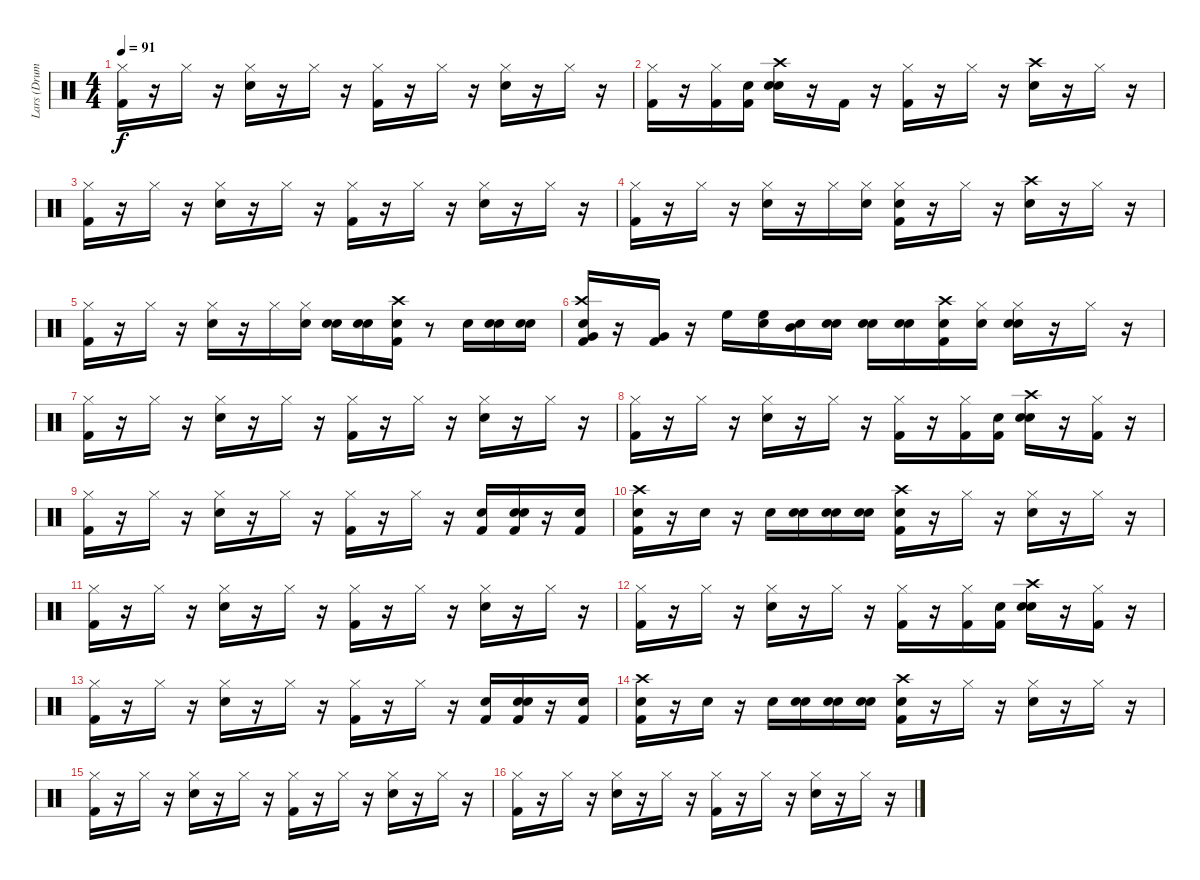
\track ("Lars (Drums)" "Lars (Drum") {instrument percussion}
\staff {score}
\articulation defaults
\ts (4 4)
\tempo 91
\clef neutral
\ks c
("Kick (hit) 2" "Hi-Hat (closed)").16{dy f} r.16 "Hi-Hat (closed)".16 r.16 ("Snare (hit) 2" "Hi-Hat (closed)").16 r.16 "Hi-Hat (closed)".16 r.16 ("Kick (hit) 2" "Hi-Hat (closed)").16 r.16 "Hi-Hat (closed)".16 r.16 ("Snare (hit) 2" "Hi-Hat (closed)").16 r.16 "Hi-Hat (closed)".16 r.16 |
("Kick (hit) 2" "Hi-Hat (closed)").16 r.16 ("Kick (hit) 2" "Hi-Hat (closed)").16 ("Snare (hit)" "Kick (hit) 2").16 ("Snare (hit)" "Snare (hit) 2" "Crash high (hit)").16 r.16 "Kick (hit) 2".16 r.16 ("Kick (hit) 2" "Hi-Hat (closed)").16 r.16 "Hi-Hat (closed)".16 r.16 ("Snare (hit) 2" "Crash high (hit)").16 r.16 "Hi-Hat (closed)".16 r.16 |
("Kick (hit) 2" "Hi-Hat (closed)").16 r.16 "Hi-Hat (closed)".16 r.16 ("Snare (hit) 2" "Hi-Hat (closed)").16 r.16 "Hi-Hat (closed)".16 r.16 ("Kick (hit) 2" "Hi-Hat (closed)").16 r.16 "Hi-Hat (closed)".16 r.16 ("Snare (hit) 2" "Hi-Hat (closed)").16 r.16 "Hi-Hat (closed)".16 r.16 |
("Kick (hit) 2" "Hi-Hat (closed)").16 r.16 "Hi-Hat (closed)".16 r.16 ("Snare (hit) 2" "Hi-Hat (closed)").16 r.16 "Hi-Hat (closed)".16 ("Snare (hit)" "Hi-Hat (closed)").16 ("Snare (hit)" "Kick (hit) 2" "Hi-Hat (closed)").16 r.16 "Hi-Hat (closed)".16 r.16 ("Snare (hit) 2" "Crash high (hit)").16 r.16 "Hi-Hat (closed)".16 r.16 |
("Kick (hit) 2" "Hi-Hat (closed)").16 r.16 "Hi-Hat (closed)".16 r.16 ("Snare (hit) 2" "Hi-Hat (closed)").16 r.16 "Hi-Hat (closed)".16 ("Snare (hit)" "Hi-Hat (closed)").16 ("Snare (hit)" "Snare (hit) 2").16 ("Snare (hit)" "Snare (hit) 2").16 ("Snare (hit)" "Kick (hit) 2" "Crash high (hit)").16 r.8 "Snare (hit) 2".16 ("Snare (hit)" "Snare (hit) 2").16 ("Snare (hit)" "Snare (hit) 2").16 |
("Snare (hit)" "Kick (hit) 2" "Very Low Tom (hit)" "Crash high (hit)").16 r.16 ("Kick (hit) 2" "Very Low Tom (hit)").16 r.16 "High Floor Tom (hit)".16 ("Snare (hit)" "High Floor Tom (hit)").16 ("Snare (hit)" "Mid Tom (hit)").16 ("Snare (hit)" "Snare (hit) 2").16 ("Snare (hit)" "Snare (hit) 2").16 ("Snare (hit)" "Snare (hit) 2").16 ("Snare (hit)" "Kick (hit) 2" "Crash high (hit)").16 ("Snare (hit)" "Hi-Hat (closed)").16 ("Snare (hit)" "Snare (hit) 2" "Hi-Hat (closed)").16 r.16 "Hi-Hat (closed)".16 r.16 |
("Kick (hit) 2" "Hi-Hat (closed)").16 r.16 "Hi-Hat (closed)".16 r.16 ("Snare (hit) 2" "Hi-Hat (closed)").16 r.16 "Hi-Hat (closed)".16 r.16 ("Kick (hit) 2" "Hi-Hat (closed)").16 r.16 "Hi-Hat (closed)".16 r.16 ("Snare (hit) 2" "Hi-Hat (closed)").16 r.16 "Hi-Hat (closed)".16 r.16 |
("Kick (hit) 2" "Hi-Hat (closed)").16 r.16 "Hi-Hat (closed)".16 r.16 ("Snare (hit) 2" "Hi-Hat (closed)").16 r.16 "Hi-Hat (closed)".16 r.16 ("Kick (hit) 2" "Hi-Hat (closed)").16 r.16 ("Kick (hit) 2" "Hi-Hat (closed)").16 ("Snare (hit)" "Kick (hit) 2").16 ("Snare (hit)" "Snare (hit) 2" "Crash high (hit)").16 r.16 ("Kick (hit) 2" "Hi-Hat (closed)").16 r.16 |
("Kick (hit) 2" "Hi-Hat (closed)").16 r.16 "Hi-Hat (closed)".16 r.16 ("Snare (hit) 2" "Hi-Hat (closed)").16 r.16 "Hi-Hat (closed)".16 r.16 ("Kick (hit) 2" "Hi-Hat (closed)").16 r.16 "Hi-Hat (closed)".16 r.16 ("Kick (hit) 2" "Snare (hit) 2").16 ("Snare (hit)" "Kick (hit) 2" "Snare (hit) 2").16 r.16 ("Kick (hit) 2" "Snare (hit) 2").16 |
("Snare (hit)" "Kick (hit) 2" "Crash high (hit)").16 r.16 "Snare (hit) 2".16 r.16 "Snare (hit) 2".16 ("Snare (hit)" "Snare (hit) 2").16 ("Snare (hit)" "Snare (hit) 2").16 ("Snare (hit)" "Snare (hit) 2").16 ("Snare (hit)" "Kick (hit) 2" "Crash high (hit)").16 r.16 "Hi-Hat (closed)".16 r.16 ("Snare (hit) 2" "Hi-Hat (closed)").16 r.16 "Hi-Hat (closed)".16 r.16 |
("Kick (hit) 2" "Hi-Hat (closed)").16 r.16 "Hi-Hat (closed)".16 r.16 ("Snare (hit) 2" "Hi-Hat (closed)").16 r.16 "Hi-Hat (closed)".16 r.16 ("Kick (hit) 2" "Hi-Hat (closed)").16 r.16 "Hi-Hat (closed)".16 r.16 ("Snare (hit) 2" "Hi-Hat (closed)").16 r.16 "Hi-Hat (closed)".16 r.16 |
("Kick (hit) 2" "Hi-Hat (closed)").16 r.16 "Hi-Hat (closed)".16 r.16 ("Snare (hit) 2" "Hi-Hat (closed)").16 r.16 "Hi-Hat (closed)".16 r.16 ("Kick (hit) 2" "Hi-Hat (closed)").16 r.16 ("Kick (hit) 2" "Hi-Hat (closed)").16 ("Snare (hit)" "Kick (hit) 2").16 ("Snare (hit)" "Snare (hit) 2" "Crash high (hit)").16 r.16 ("Kick (hit) 2" "Hi-Hat (closed)").16 r.16 |
("Kick (hit) 2" "Hi-Hat (closed)").16 r.16 "Hi-Hat (closed)".16 r.16 ("Snare (hit) 2" "Hi-Hat (closed)").16 r.16 "Hi-Hat (closed)".16 r.16 ("Kick (hit) 2" "Hi-Hat (closed)").16 r.16 "Hi-Hat (closed)".16 r.16 ("Kick (hit) 2" "Snare (hit) 2").16 ("Snare (hit)" "Kick (hit) 2" "Snare (hit) 2").16 r.16 ("Kick (hit) 2" "Snare (hit) 2").16 |
("Snare (hit)" "Kick (hit) 2" "Crash high (hit)").16 r.16 "Snare (hit) 2".16 r.16 "Snare (hit) 2".16 ("Snare (hit)" "Snare (hit) 2").16 ("Snare (hit)" "Snare (hit) 2").16 ("Snare (hit)" "Snare (hit) 2").16 ("Snare (hit)" "Kick (hit) 2" "Crash high (hit)").16 r.16 "Hi-Hat (closed)".16 r.16 ("Snare (hit) 2" "Hi-Hat (closed)").16 r.16 "Hi-Hat (closed)".16 r.16 |
("Kick (hit) 2" "Hi-Hat (closed)").16 r.16 "Hi-Hat (closed)".16 r.16 ("Snare (hit) 2" "Hi-Hat (closed)").16 r.16 "Hi-Hat (closed)".16 r.16 ("Kick (hit) 2" "Hi-Hat (closed)").16 r.16 "Hi-Hat (closed)".16 r.16 ("Snare (hit) 2" "Hi-Hat (closed)").16 r.16 "Hi-Hat (closed)".16 r.16 |
("Kick (hit) 2" "Hi-Hat (closed)").16 r.16 "Hi-Hat (closed)".16 r.16 ("Snare (hit) 2" "Hi-Hat (closed)").16 r.16 "Hi-Hat (closed)".16 r.16 ("Kick (hit) 2" "Hi-Hat (closed)").16 r.16 "Hi-Hat (closed)".16 r.16 ("Snare (hit) 2" "Hi-Hat (closed)").16 r.16 "Hi-Hat (closed)".16 r.16
